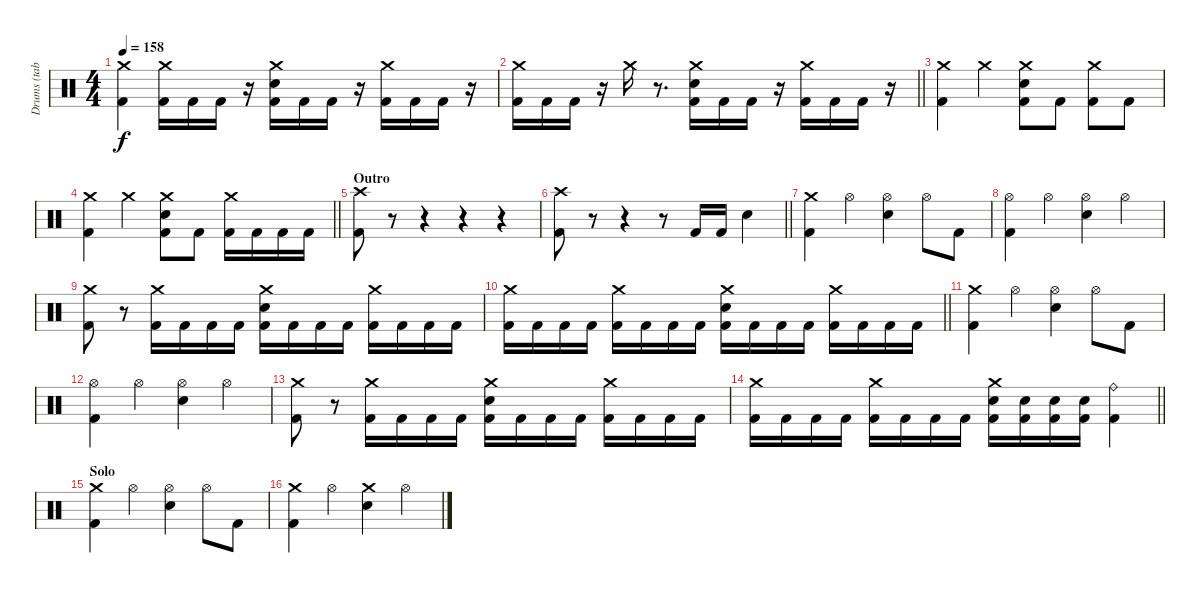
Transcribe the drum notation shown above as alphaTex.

\track ("Drums (tabbed by bassman213293)" "Drums (tab") {instrument percussion}
\staff {score}
\articulation defaults
\ts (4 4)
\tempo 158
\clef neutral
\ks c
("Crash medium (hit)" "Kick (hit) 2").4{dy f} ("Crash medium (hit)" "Kick (hit) 2").16 "Kick (hit) 2".16 "Kick (hit) 2".16 r.16 ("Crash medium (hit)" "Electric Snare (hit)" "Kick (hit) 2").16 "Kick (hit) 2".16 "Kick (hit) 2".16 r.16 ("Crash medium (hit)" "Kick (hit) 2").16 "Kick (hit) 2".16 "Kick (hit) 2".16 r.16 |
\barLineRight lightlight
("Crash medium (hit)" "Kick (hit) 2").16 "Kick (hit) 2".16 "Kick (hit) 2".16 r.16 "Crash medium (hit)".16 r.8{d} ("Crash medium (hit)" "Electric Snare (hit)" "Kick (hit) 2").16 "Kick (hit) 2".16 "Kick (hit) 2".16 r.16 ("Crash medium (hit)" "Kick (hit) 2").16 "Kick (hit) 2".16 "Kick (hit) 2".16 r.16 |
("Crash medium (hit)" "Kick (hit) 2").4 "Crash medium (hit)".4 ("Crash medium (hit)" "Electric Snare (hit)" "Kick (hit) 2").8 "Kick (hit) 2".8 ("Crash medium (hit)" "Kick (hit) 2").8 "Kick (hit) 2".8 |
\barLineRight lightlight
("Crash medium (hit)" "Kick (hit) 2").4 "Crash medium (hit)".4 ("Crash medium (hit)" "Electric Snare (hit)" "Kick (hit) 2").8 "Kick (hit) 2".8 ("Crash medium (hit)" "Kick (hit) 2").16 "Kick (hit) 2".16 "Kick (hit) 2".16 "Kick (hit) 2".16 |
\section ("" "Outro")
("Crash high (hit)" "Kick (hit) 2").8 r.8 r.4 r.4 r.4 |
\barLineRight lightlight
("Crash high (hit)" "Kick (hit) 2").8 r.8 r.4 r.8 "Kick (hit) 2".16 "Kick (hit) 2".16 "Electric Snare (hit)".4 |
("Crash medium (hit)" "Kick (hit) 2").4 "Hi-Hat (open)".4 ("Hi-Hat (open)" "Electric Snare (hit)").4 "Hi-Hat (open)".8 "Kick (hit) 2".8 |
("Hi-Hat (open)" "Kick (hit) 2").4 "Hi-Hat (open)".4 ("Hi-Hat (open)" "Electric Snare (hit)").4 "Hi-Hat (open)".4 |
("Crash medium (hit)" "Kick (hit) 2").8 r.8 ("Crash medium (hit)" "Kick (hit) 2").16 "Kick (hit) 2".16 "Kick (hit) 2".16 "Kick (hit) 2".16 ("Crash medium (hit)" "Electric Snare (hit)" "Kick (hit) 2").16 "Kick (hit) 2".16 "Kick (hit) 2".16 "Kick (hit) 2".16 ("Crash medium (hit)" "Kick (hit) 2").16 "Kick (hit) 2".16 "Kick (hit) 2".16 "Kick (hit) 2".16 |
\barLineRight lightlight
("Crash medium (hit)" "Kick (hit) 2").16 "Kick (hit) 2".16 "Kick (hit) 2".16 "Kick (hit) 2".16 ("Crash medium (hit)" "Kick (hit) 2").16 "Kick (hit) 2".16 "Kick (hit) 2".16 "Kick (hit) 2".16 ("Crash medium (hit)" "Electric Snare (hit)" "Kick (hit) 2").16 "Kick (hit) 2".16 "Kick (hit) 2".16 "Kick (hit) 2".16 ("Crash medium (hit)" "Kick (hit) 2").16 "Kick (hit) 2".16 "Kick (hit) 2".16 "Kick (hit) 2".16 |
("Crash medium (hit)" "Kick (hit) 2").4 "Hi-Hat (open)".4 ("Hi-Hat (open)" "Electric Snare (hit)").4 "Hi-Hat (open)".8 "Kick (hit) 2".8 |
("Hi-Hat (open)" "Kick (hit) 2").4 "Hi-Hat (open)".4 ("Hi-Hat (open)" "Electric Snare (hit)").4 "Hi-Hat (open)".4 |
("Crash medium (hit)" "Kick (hit) 2").8 r.8 ("Crash medium (hit)" "Kick (hit) 2").16 "Kick (hit) 2".16 "Kick (hit) 2".16 "Kick (hit) 2".16 ("Crash medium (hit)" "Electric Snare (hit)" "Kick (hit) 2").16 "Kick (hit) 2".16 "Kick (hit) 2".16 "Kick (hit) 2".16 ("Crash medium (hit)" "Kick (hit) 2").16 "Kick (hit) 2".16 "Kick (hit) 2".16 "Kick (hit) 2".16 |
\barLineRight lightlight
("Crash medium (hit)" "Kick (hit) 2").16 "Kick (hit) 2".16 "Kick (hit) 2".16 "Kick (hit) 2".16 ("Crash medium (hit)" "Kick (hit) 2").16 "Kick (hit) 2".16 "Kick (hit) 2".16 "Kick (hit) 2".16 ("Crash medium (hit)" "Electric Snare (hit)" "Kick (hit) 2").16 ("Electric Snare (hit)" "Kick (hit) 2").16 ("Electric Snare (hit)" "Kick (hit) 2").16 ("Electric Snare (hit)" "Kick (hit) 2").16 ("Ride (bell)" "Kick (hit) 2").4 |
\section ("" "Solo")
("Crash medium (hit)" "Kick (hit) 2").4 "Hi-Hat (open)".4 ("Hi-Hat (open)" "Electric Snare (hit)").4 "Hi-Hat (open)".8 "Kick (hit) 2".8 |
("Crash medium (hit)" "Kick (hit) 2").4 "Hi-Hat (open)".4 ("Crash medium (hit)" "Electric Snare (hit)").4 "Hi-Hat (open)".4
